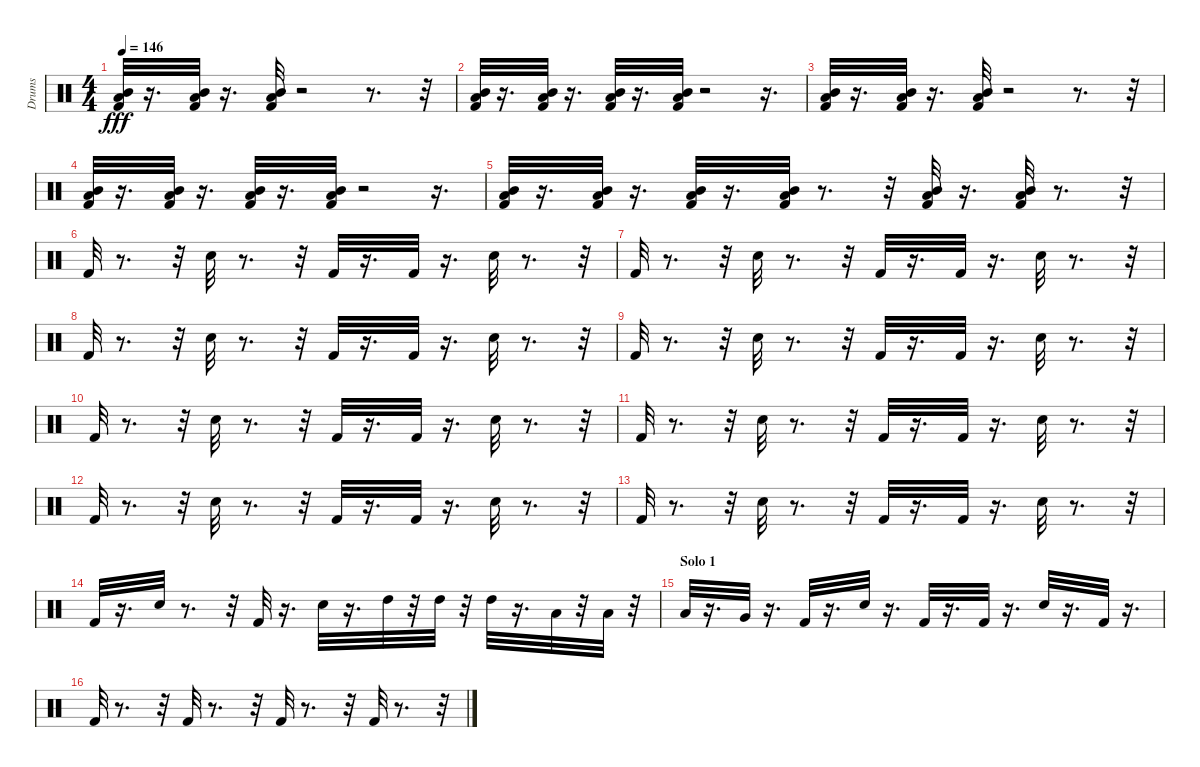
\track ("Drums" "Drums") {instrument percussion}
\staff {score}
\articulation defaults
\ts (4 4)
\tempo 146
\clef neutral
\ks c
("Kick (hit) 2" "Low Floor Tom (hit)" "Mid Tom (hit)").32{dy fff} r.16{d} ("Kick (hit) 2" "Low Floor Tom (hit)" "Mid Tom (hit)").32 r.16{d} ("Kick (hit) 2" "Low Floor Tom (hit)" "Mid Tom (hit)").32 r.2 r.8{d} r.32 |
("Kick (hit) 2" "Low Floor Tom (hit)" "Mid Tom (hit)").32 r.16{d} ("Kick (hit) 2" "Low Floor Tom (hit)" "Mid Tom (hit)").32 r.16{d} ("Kick (hit) 2" "Low Floor Tom (hit)" "Mid Tom (hit)").32 r.16{d} ("Kick (hit) 2" "Low Floor Tom (hit)" "Mid Tom (hit)").32 r.2 r.16{d} |
("Kick (hit) 2" "Low Floor Tom (hit)" "Mid Tom (hit)").32 r.16{d} ("Kick (hit) 2" "Low Floor Tom (hit)" "Mid Tom (hit)").32 r.16{d} ("Kick (hit) 2" "Low Floor Tom (hit)" "Mid Tom (hit)").32 r.2 r.8{d} r.32 |
("Kick (hit) 2" "Low Floor Tom (hit)" "Mid Tom (hit)").32 r.16{d} ("Kick (hit) 2" "Low Floor Tom (hit)" "Mid Tom (hit)").32 r.16{d} ("Kick (hit) 2" "Low Floor Tom (hit)" "Mid Tom (hit)").32 r.16{d} ("Kick (hit) 2" "Low Floor Tom (hit)" "Mid Tom (hit)").32 r.2 r.16{d} |
("Kick (hit) 2" "Low Floor Tom (hit)" "Mid Tom (hit)").32 r.16{d} ("Kick (hit) 2" "Low Floor Tom (hit)" "Mid Tom (hit)").32 r.16{d} ("Kick (hit) 2" "Low Floor Tom (hit)" "Mid Tom (hit)").32 r.16{d} ("Kick (hit) 2" "Low Floor Tom (hit)" "Mid Tom (hit)").32 r.8{d} r.32 ("Kick (hit) 2" "Low Floor Tom (hit)" "Mid Tom (hit)").32 r.16{d} ("Kick (hit) 2" "Low Floor Tom (hit)" "Mid Tom (hit)").32 r.8{d} r.32 |
"Kick (hit) 2".32 r.8{d} r.32 "Snare (hit) 2".32 r.8{d} r.32 "Kick (hit) 2".32 r.16{d} "Kick (hit) 2".32 r.16{d} "Snare (hit) 2".32 r.8{d} r.32 |
"Kick (hit) 2".32 r.8{d} r.32 "Snare (hit) 2".32 r.8{d} r.32 "Kick (hit) 2".32 r.16{d} "Kick (hit) 2".32 r.16{d} "Snare (hit) 2".32 r.8{d} r.32 |
"Kick (hit) 2".32 r.8{d} r.32 "Snare (hit) 2".32 r.8{d} r.32 "Kick (hit) 2".32 r.16{d} "Kick (hit) 2".32 r.16{d} "Snare (hit) 2".32 r.8{d} r.32 |
"Kick (hit) 2".32 r.8{d} r.32 "Snare (hit) 2".32 r.8{d} r.32 "Kick (hit) 2".32 r.16{d} "Kick (hit) 2".32 r.16{d} "Snare (hit) 2".32 r.8{d} r.32 |
"Kick (hit) 2".32 r.8{d} r.32 "Snare (hit) 2".32 r.8{d} r.32 "Kick (hit) 2".32 r.16{d} "Kick (hit) 2".32 r.16{d} "Snare (hit) 2".32 r.8{d} r.32 |
"Kick (hit) 2".32 r.8{d} r.32 "Snare (hit) 2".32 r.8{d} r.32 "Kick (hit) 2".32 r.16{d} "Kick (hit) 2".32 r.16{d} "Snare (hit) 2".32 r.8{d} r.32 |
"Kick (hit) 2".32 r.8{d} r.32 "Snare (hit) 2".32 r.8{d} r.32 "Kick (hit) 2".32 r.16{d} "Kick (hit) 2".32 r.16{d} "Snare (hit) 2".32 r.8{d} r.32 |
"Kick (hit) 2".32 r.8{d} r.32 "Snare (hit) 2".32 r.8{d} r.32 "Kick (hit) 2".32 r.16{d} "Kick (hit) 2".32 r.16{d} "Snare (hit) 2".32 r.8{d} r.32 |
"Kick (hit) 2".32 r.16{d} "Snare (hit) 2".32 r.8{d} r.32 "Kick (hit) 2".32 r.16{d} "Snare (hit) 2".32 r.16{d} "High Tom (hit)".32 r.32 "High Tom (hit)".32 r.32 "High Tom (hit)".32 r.16{d} "Low Tom (hit)".32 r.32 "Low Tom (hit)".32 r.32 |
\section ("" "Solo 1")
"Low Tom (hit)".32 r.16{d} "Very Low Tom (hit)".32 r.16{d} "Kick (hit) 2".32 r.16{d} "Snare (hit) 2".32 r.16{d} "Kick (hit) 2".32 r.16{d} "Kick (hit) 2".32 r.16{d} "Snare (hit) 2".32 r.16{d} "Kick (hit) 2".32 r.16{d} |
"Kick (hit) 2".32 r.8{d} r.32 "Kick (hit) 2".32 r.8{d} r.32 "Kick (hit) 2".32 r.8{d} r.32 "Kick (hit) 2".32 r.8{d} r.32
